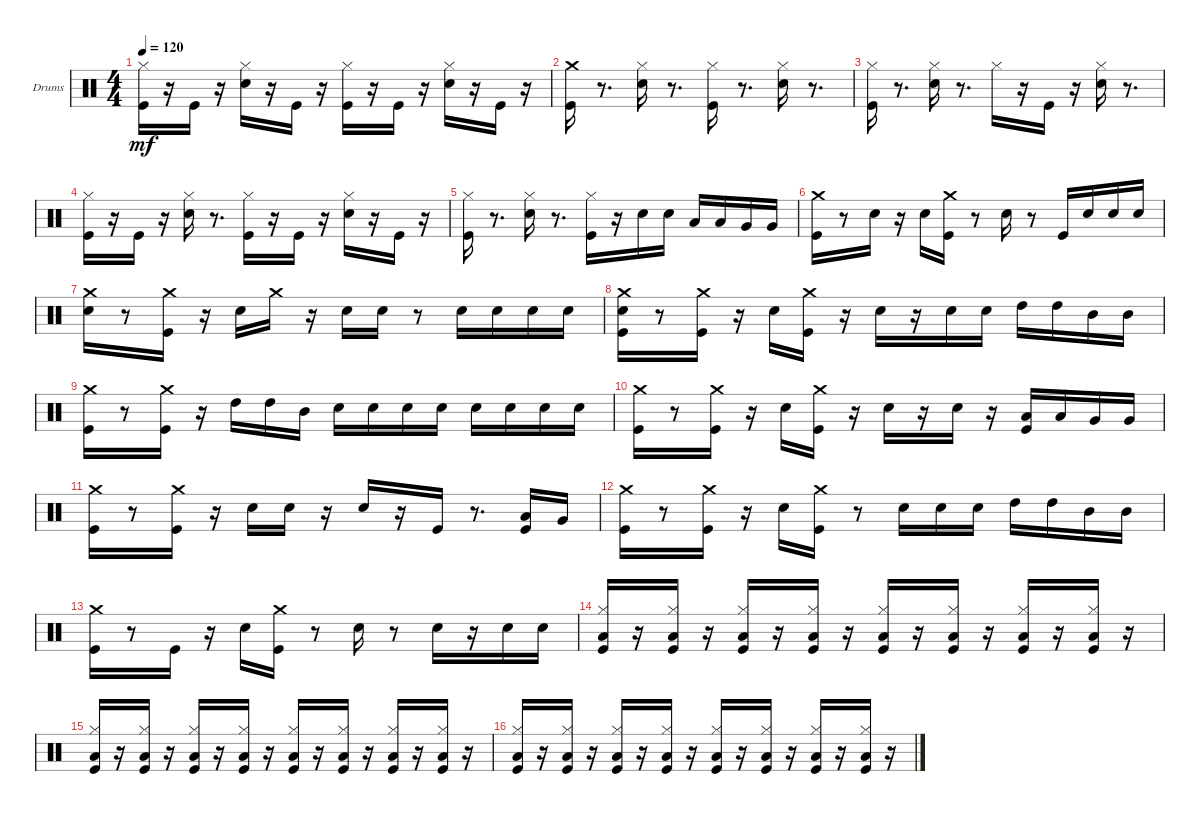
\bracketExtendMode groupsimilarinstruments
\firstSystemTrackNameOrientation horizontal
\otherSystemsTrackNameOrientation horizontal
\track ("Drumkit" "Drums") {instrument percussion}
\staff {score}
\articulation defaults
\ts (4 4)
\tempo 120
\clef neutral
\ks aminor
("Kick (hit)" "Hi-Hat (closed)").16{dy mf} r.16 "Kick (hit)".16 r.16 ("Snare (hit) 2" "Hi-Hat (closed)").16 r.16 "Kick (hit)".16 r.16 ("Kick (hit)" "Hi-Hat (closed)").16 r.16 "Kick (hit)".16 r.16 ("Snare (hit) 2" "Hi-Hat (closed)").16 r.16 "Kick (hit)".16 r.16 |
("Kick (hit)" "Crash medium (hit)").16 r.8{d} ("Snare (hit) 2" "Hi-Hat (closed)").16 r.8{d} ("Kick (hit)" "Hi-Hat (closed)").16 r.8{d} ("Snare (hit) 2" "Hi-Hat (closed)").16 r.8{d} |
("Kick (hit)" "Hi-Hat (closed)").16 r.8{d} ("Snare (hit) 2" "Hi-Hat (closed)").16 r.8{d} "Hi-Hat (closed)".16 r.16 "Kick (hit)".16 r.16 ("Snare (hit) 2" "Hi-Hat (closed)").16 r.8{d} |
("Kick (hit)" "Hi-Hat (closed)").16 r.16 "Kick (hit)".16 r.16 ("Snare (hit) 2" "Hi-Hat (closed)").16 r.8{d} ("Kick (hit)" "Hi-Hat (closed)").16 r.16 "Kick (hit)".16 r.16 ("Snare (hit) 2" "Hi-Hat (closed)").16 r.16 "Kick (hit)".16 r.16 |
("Kick (hit)" "Hi-Hat (closed)").16 r.8{d} ("Snare (hit) 2" "Hi-Hat (closed)").16 r.8{d} ("Kick (hit)" "Hi-Hat (closed)").16 r.16 "Snare (hit) 2".16 "Snare (hit) 2".16 "Low Tom (hit)".16 "Low Tom (hit)".16 "Very Low Tom (hit)".16 "Very Low Tom (hit)".16 |
("Kick (hit)" "Crash medium (hit)").16 r.8 "Snare (hit) 2".16 r.16 "Snare (hit) 2".16 ("Kick (hit)" "Crash medium (hit)").16 r.8 "Snare (hit) 2".16 r.8 "Kick (hit)".16 "Snare (hit) 2".16 "Snare (hit) 2".16 "Snare (hit) 2".16 |
("Snare (hit) 2" "Crash medium (hit)").16 r.8 ("Kick (hit)" "Crash medium (hit)").16 r.16 "Snare (hit) 2".16 "Crash medium (hit)".16 r.16 "Snare (hit) 2".16 "Snare (hit) 2".16 r.8 "Snare (hit) 2".16 "Snare (hit) 2".16 "Snare (hit) 2".16 "Snare (hit) 2".16 |
("Snare (hit) 2" "Kick (hit)" "Crash medium (hit)").16 r.8 ("Kick (hit)" "Crash medium (hit)").16 r.16 "Snare (hit) 2".16 ("Kick (hit)" "Crash medium (hit)").16 r.16 "Snare (hit) 2".16 r.16 "Snare (hit) 2".16 "Snare (hit) 2".16 "High Tom (hit)".16 "High Tom (hit)".16 "Mid Tom (hit)".16 "Mid Tom (hit)".16 |
("Kick (hit)" "Crash medium (hit)").16 r.8 ("Kick (hit)" "Crash medium (hit)").16 r.16 "High Tom (hit)".16 "High Tom (hit)".16 "Mid Tom (hit)".16 "Snare (hit) 2".16 "Snare (hit) 2".16 "Snare (hit) 2".16 "Snare (hit) 2".16 "Snare (hit) 2".16 "Snare (hit) 2".16 "Snare (hit) 2".16 "Snare (hit) 2".16 |
("Kick (hit)" "Crash medium (hit)").16 r.8 ("Kick (hit)" "Crash medium (hit)").16 r.16 "Snare (hit) 2".16 ("Kick (hit)" "Crash medium (hit)").16 r.16 "Snare (hit) 2".16 r.16 "Snare (hit) 2".16 r.16 ("Kick (hit)" "Low Tom (hit)").16 "Low Tom (hit)".16 "Very Low Tom (hit)".16 "Very Low Tom (hit)".16 |
("Kick (hit)" "Crash medium (hit)").16 r.8 ("Kick (hit)" "Crash medium (hit)").16 r.16 "Snare (hit) 2".16 "Snare (hit) 2".16 r.16 "Snare (hit) 2".16 r.16 "Kick (hit)".16 r.8{d} ("Kick (hit)" "Low Tom (hit)").16 "Very Low Tom (hit)".16 |
("Kick (hit)" "Crash medium (hit)").16 r.8 ("Kick (hit)" "Crash medium (hit)").16 r.16 "Snare (hit) 2".16 ("Kick (hit)" "Crash medium (hit)").16 r.8 "Snare (hit) 2".16 "Snare (hit) 2".16 "Snare (hit) 2".16 "High Tom (hit)".16 "High Tom (hit)".16 "Mid Tom (hit)".16 "Mid Tom (hit)".16 |
("Kick (hit)" "Crash medium (hit)").16 r.8 "Kick (hit)".16 r.16 "Snare (hit) 2".16 ("Kick (hit)" "Crash medium (hit)").16 r.8 "Snare (hit) 2".16 r.8 "Snare (hit) 2".16 r.16 "Snare (hit) 2".16 "Snare (hit) 2".16 |
("Kick (hit)" "Hi-Hat (closed)" "Low Tom (hit)").16 r.16 ("Kick (hit)" "Hi-Hat (closed)" "Low Tom (hit)").16 r.16 ("Kick (hit)" "Hi-Hat (closed)" "Low Tom (hit)").16 r.16 ("Kick (hit)" "Hi-Hat (closed)" "Low Tom (hit)").16 r.16 ("Kick (hit)" "Hi-Hat (closed)" "Low Tom (hit)").16 r.16 ("Kick (hit)" "Hi-Hat (closed)" "Low Tom (hit)").16 r.16 ("Kick (hit)" "Hi-Hat (closed)" "Low Tom (hit)").16 r.16 ("Kick (hit)" "Hi-Hat (closed)" "Low Tom (hit)").16 r.16 |
("Kick (hit)" "Hi-Hat (closed)" "Low Tom (hit)").16 r.16 ("Kick (hit)" "Hi-Hat (closed)" "Low Tom (hit)").16 r.16 ("Hi-Hat (closed)" "Kick (hit)" "Low Tom (hit)").16 r.16 ("Kick (hit)" "Hi-Hat (closed)" "Low Tom (hit)").16 r.16 ("Kick (hit)" "Hi-Hat (closed)" "Low Tom (hit)").16 r.16 ("Kick (hit)" "Hi-Hat (closed)" "Low Tom (hit)").16 r.16 ("Hi-Hat (closed)" "Kick (hit)" "Low Tom (hit)").16 r.16 ("Kick (hit)" "Hi-Hat (closed)" "Low Tom (hit)").16 r.16 |
("Kick (hit)" "Hi-Hat (closed)" "Low Tom (hit)").16 r.16 ("Kick (hit)" "Hi-Hat (closed)" "Low Tom (hit)").16 r.16 ("Kick (hit)" "Hi-Hat (closed)" "Low Tom (hit)").16 r.16 ("Kick (hit)" "Hi-Hat (closed)" "Low Tom (hit)").16 r.16 ("Kick (hit)" "Hi-Hat (closed)" "Low Tom (hit)").16 r.16 ("Kick (hit)" "Hi-Hat (closed)" "Low Tom (hit)").16 r.16 ("Hi-Hat (closed)" "Kick (hit)" "Low Tom (hit)").16 r.16 ("Kick (hit)" "Hi-Hat (closed)" "Low Tom (hit)").16 r.16
